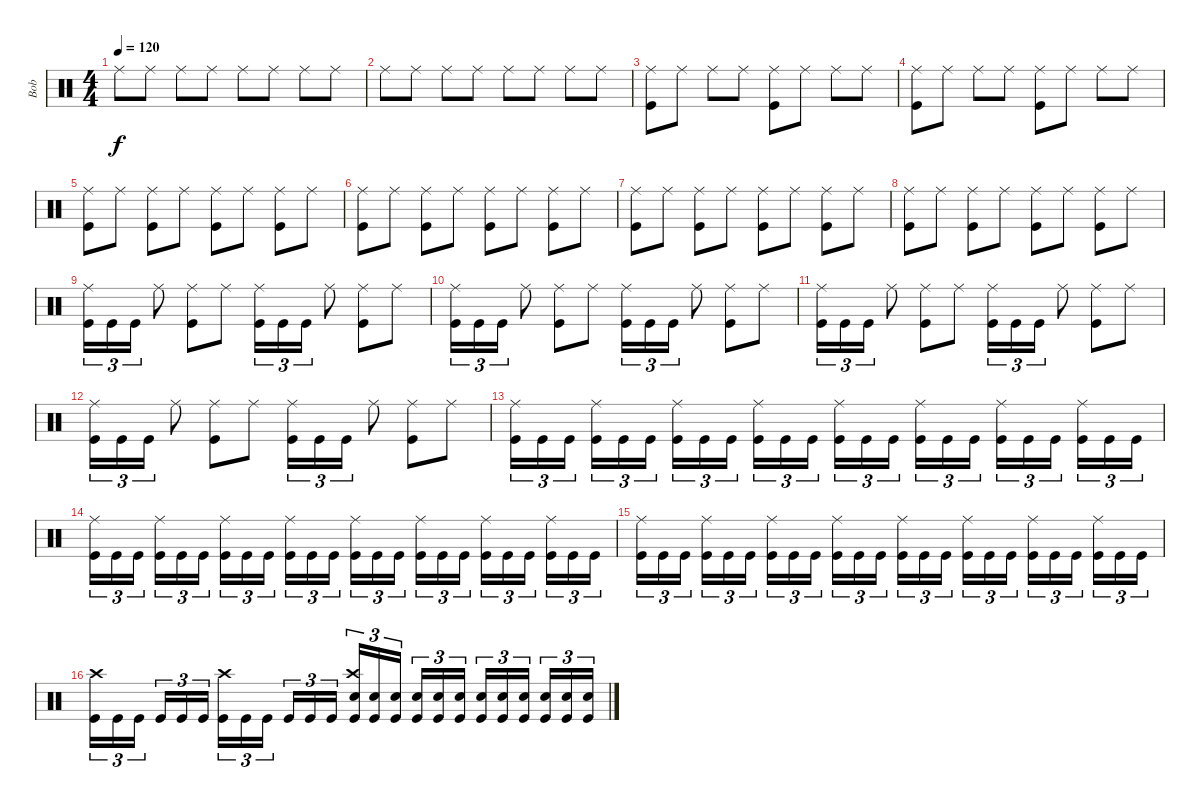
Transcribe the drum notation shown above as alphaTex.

\track ("Bob" "Bob") {instrument percussion}
\staff {score}
\articulation defaults
\ts (4 4)
\tempo 120
\clef neutral
\ks c "Ride (middle)".8{dy f} "Ride (middle)".8 "Ride (middle)".8 "Ride (middle)".8 "Ride (middle)".8 "Ride (middle)".8 "Ride (middle)".8 "Ride (middle)".8
|
"Ride (middle)".8 "Ride (middle)".8 "Ride (middle)".8 "Ride (middle)".8 "Ride (middle)".8 "Ride (middle)".8 "Ride (middle)".8 "Ride (middle)".8 |
("Ride (middle)" "Kick (hit)").8 "Ride (middle)".8 "Ride (middle)".8 "Ride (middle)".8 ("Ride (middle)" "Kick (hit)").8 "Ride (middle)".8 "Ride (middle)".8 "Ride (middle)".8 |
("Ride (middle)" "Kick (hit)").8 "Ride (middle)".8 "Ride (middle)".8 "Ride (middle)".8 ("Ride (middle)" "Kick (hit)").8 "Ride (middle)".8 "Ride (middle)".8 "Ride (middle)".8 |
("Ride (middle)" "Kick (hit)").8 "Ride (middle)".8 ("Ride (middle)" "Kick (hit)").8 "Ride (middle)".8 ("Ride (middle)" "Kick (hit)").8 "Ride (middle)".8 ("Ride (middle)" "Kick (hit)").8 "Ride (middle)".8 |
("Ride (middle)" "Kick (hit)").8 "Ride (middle)".8 ("Ride (middle)" "Kick (hit)").8 "Ride (middle)".8 ("Ride (middle)" "Kick (hit)").8 "Ride (middle)".8 ("Ride (middle)" "Kick (hit)").8 "Ride (middle)".8 |
("Ride (middle)" "Kick (hit)").8 "Ride (middle)".8 ("Ride (middle)" "Kick (hit)").8 "Ride (middle)".8 ("Ride (middle)" "Kick (hit)").8 "Ride (middle)".8 ("Ride (middle)" "Kick (hit)").8 "Ride (middle)".8 |
("Ride (middle)" "Kick (hit)").8 "Ride (middle)".8 ("Ride (middle)" "Kick (hit)").8 "Ride (middle)".8 ("Ride (middle)" "Kick (hit)").8 "Ride (middle)".8 ("Ride (middle)" "Kick (hit)").8 "Ride (middle)".8 |
("Ride (middle)" "Kick (hit)").16{tu (3 2)} "Kick (hit)".16{tu (3 2)} "Kick (hit)".16{tu (3 2)} "Ride (middle)".8 ("Ride (middle)" "Kick (hit)").8 "Ride (middle)".8 ("Ride (middle)" "Kick (hit)").16{tu (3 2)} "Kick (hit)".16{tu (3 2)} "Kick (hit)".16{tu (3 2)} "Ride (middle)".8 ("Ride (middle)" "Kick (hit)").8 "Ride (middle)".8 |
("Ride (middle)" "Kick (hit)").16{tu (3 2)} "Kick (hit)".16{tu (3 2)} "Kick (hit)".16{tu (3 2)} "Ride (middle)".8 ("Ride (middle)" "Kick (hit)").8 "Ride (middle)".8 ("Ride (middle)" "Kick (hit)").16{tu (3 2)} "Kick (hit)".16{tu (3 2)} "Kick (hit)".16{tu (3 2)} "Ride (middle)".8 ("Ride (middle)" "Kick (hit)").8 "Ride (middle)".8 |
("Ride (middle)" "Kick (hit)").16{tu (3 2)} "Kick (hit)".16{tu (3 2)} "Kick (hit)".16{tu (3 2)} "Ride (middle)".8 ("Ride (middle)" "Kick (hit)").8 "Ride (middle)".8 ("Ride (middle)" "Kick (hit)").16{tu (3 2)} "Kick (hit)".16{tu (3 2)} "Kick (hit)".16{tu (3 2)} "Ride (middle)".8 ("Ride (middle)" "Kick (hit)").8 "Ride (middle)".8 |
("Ride (middle)" "Kick (hit)").16{tu (3 2)} "Kick (hit)".16{tu (3 2)} "Kick (hit)".16{tu (3 2)} "Ride (middle)".8 ("Ride (middle)" "Kick (hit)").8 "Ride (middle)".8 ("Ride (middle)" "Kick (hit)").16{tu (3 2)} "Kick (hit)".16{tu (3 2)} "Kick (hit)".16{tu (3 2)} "Ride (middle)".8 ("Ride (middle)" "Kick (hit)").8 "Ride (middle)".8 |
("Ride (middle)" "Kick (hit)").16{tu (3 2)} "Kick (hit)".16{tu (3 2)} "Kick (hit)".16{tu (3 2)} ("Ride (middle)" "Kick (hit)").16{tu (3 2)} "Kick (hit)".16{tu (3 2)} "Kick (hit)".16{tu (3 2)} ("Ride (middle)" "Kick (hit)").16{tu (3 2)} "Kick (hit)".16{tu (3 2)} "Kick (hit)".16{tu (3 2)} ("Ride (middle)" "Kick (hit)").16{tu (3 2)} "Kick (hit)".16{tu (3 2)} "Kick (hit)".16{tu (3 2)} ("Ride (middle)" "Kick (hit)").16{tu (3 2)} "Kick (hit)".16{tu (3 2)} "Kick (hit)".16{tu (3 2)} ("Ride (middle)" "Kick (hit)").16{tu (3 2)} "Kick (hit)".16{tu (3 2)} "Kick (hit)".16{tu (3 2)} ("Ride (middle)" "Kick (hit)").16{tu (3 2)} "Kick (hit)".16{tu (3 2)} "Kick (hit)".16{tu (3 2)} ("Ride (middle)" "Kick (hit)").16{tu (3 2)} "Kick (hit)".16{tu (3 2)} "Kick (hit)".16{tu (3 2)} |
("Ride (middle)" "Kick (hit)").16{tu (3 2)} "Kick (hit)".16{tu (3 2)} "Kick (hit)".16{tu (3 2)} ("Ride (middle)" "Kick (hit)").16{tu (3 2)} "Kick (hit)".16{tu (3 2)} "Kick (hit)".16{tu (3 2)} ("Ride (middle)" "Kick (hit)").16{tu (3 2)} "Kick (hit)".16{tu (3 2)} "Kick (hit)".16{tu (3 2)} ("Ride (middle)" "Kick (hit)").16{tu (3 2)} "Kick (hit)".16{tu (3 2)} "Kick (hit)".16{tu (3 2)} ("Ride (middle)" "Kick (hit)").16{tu (3 2)} "Kick (hit)".16{tu (3 2)} "Kick (hit)".16{tu (3 2)} ("Ride (middle)" "Kick (hit)").16{tu (3 2)} "Kick (hit)".16{tu (3 2)} "Kick (hit)".16{tu (3 2)} ("Ride (middle)" "Kick (hit)").16{tu (3 2)} "Kick (hit)".16{tu (3 2)} "Kick (hit)".16{tu (3 2)} ("Ride (middle)" "Kick (hit)").16{tu (3 2)} "Kick (hit)".16{tu (3 2)} "Kick (hit)".16{tu (3 2)} |
("Ride (middle)" "Kick (hit)").16{tu (3 2)} "Kick (hit)".16{tu (3 2)} "Kick (hit)".16{tu (3 2)} ("Ride (middle)" "Kick (hit)").16{tu (3 2)} "Kick (hit)".16{tu (3 2)} "Kick (hit)".16{tu (3 2)} ("Ride (middle)" "Kick (hit)").16{tu (3 2)} "Kick (hit)".16{tu (3 2)} "Kick (hit)".16{tu (3 2)} ("Ride (middle)" "Kick (hit)").16{tu (3 2)} "Kick (hit)".16{tu (3 2)} "Kick (hit)".16{tu (3 2)} ("Ride (middle)" "Kick (hit)").16{tu (3 2)} "Kick (hit)".16{tu (3 2)} "Kick (hit)".16{tu (3 2)} ("Ride (middle)" "Kick (hit)").16{tu (3 2)} "Kick (hit)".16{tu (3 2)} "Kick (hit)".16{tu (3 2)} ("Ride (middle)" "Kick (hit)").16{tu (3 2)} "Kick (hit)".16{tu (3 2)} "Kick (hit)".16{tu (3 2)} ("Ride (middle)" "Kick (hit)").16{tu (3 2)} "Kick (hit)".16{tu (3 2)} "Kick (hit)".16{tu (3 2)} |
("Crash high (hit)" "Kick (hit)").16{tu (3 2)} "Kick (hit)".16{tu (3 2)} "Kick (hit)".16{tu (3 2)} "Kick (hit)".16{tu (3 2)} "Kick (hit)".16{tu (3 2)} "Kick (hit)".16{tu (3 2)} ("Crash high (hit)" "Kick (hit)").16{tu (3 2)} "Kick (hit)".16{tu (3 2)} "Kick (hit)".16{tu (3 2)} "Kick (hit)".16{tu (3 2)} "Kick (hit)".16{tu (3 2)} "Kick (hit)".16{tu (3 2)} ("Crash high (hit)" "Snare (hit) 2" "Kick (hit)").16{tu (3 2)} ("Snare (hit) 2" "Kick (hit)").16{tu (3 2)} ("Snare (hit) 2" "Kick (hit)").16{tu (3 2)} ("Snare (hit) 2" "Kick (hit)").16{tu (3 2)} ("Snare (hit) 2" "Kick (hit)").16{tu (3 2)} ("Snare (hit) 2" "Kick (hit)").16{tu (3 2)} ("Snare (hit) 2" "Kick (hit)").16{tu (3 2)} ("Snare (hit) 2" "Kick (hit)").16{tu (3 2)} ("Snare (hit) 2" "Kick (hit)").16{tu (3 2)} ("Snare (hit) 2" "Kick (hit)").16{tu (3 2)} ("Snare (hit) 2" "Kick (hit)").16{tu (3 2)} ("Snare (hit) 2" "Kick (hit)").16{tu (3 2)}
